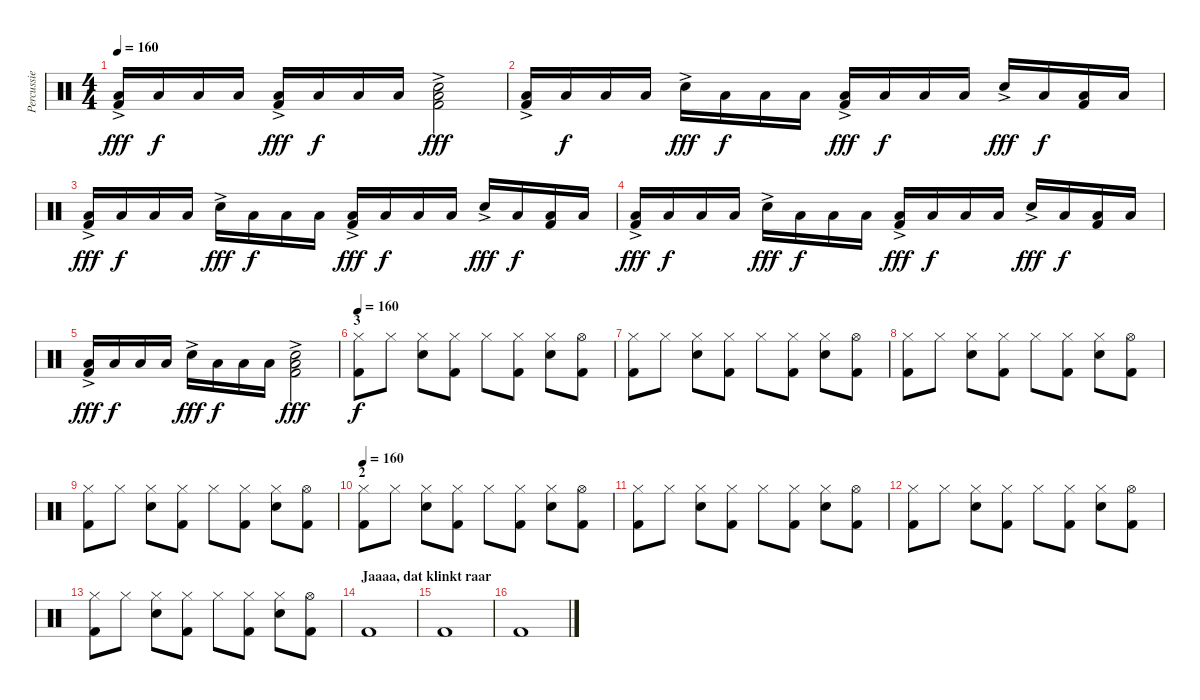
\track ("Percussie" "Percussie") {instrument percussion}
\staff {score}
\articulation defaults
\ts (4 4)
\tempo 160
\clef neutral
\ks c
("Low Floor Tom (hit)"{ac} "Kick (hit) 2").16{dy fff} "Low Floor Tom (hit)".16{dy f} "Low Floor Tom (hit)".16 "Low Floor Tom (hit)".16 ("Low Floor Tom (hit)"{ac} "Kick (hit) 2").16{dy fff} "Low Floor Tom (hit)".16{dy f} "Low Floor Tom (hit)".16 "Low Floor Tom (hit)".16 ("Snare (hit) 2"{ac} "Low Floor Tom (hit)"{ac} "Kick (hit) 2").2{dy fff} |
("Low Floor Tom (hit)"{ac} "Kick (hit) 2").16 "Low Floor Tom (hit)".16{dy f} "Low Floor Tom (hit)".16 "Low Floor Tom (hit)".16 "Snare (hit) 2"{ac}.16{dy fff} "Low Floor Tom (hit)".16{dy f} "Low Floor Tom (hit)".16 "Low Floor Tom (hit)".16 ("Low Floor Tom (hit)"{ac} "Kick (hit) 2").16{dy fff} "Low Floor Tom (hit)".16{dy f} "Low Floor Tom (hit)".16 "Low Floor Tom (hit)".16 "Snare (hit) 2"{ac}.16{dy fff} "Low Floor Tom (hit)".16{dy f} ("Low Floor Tom (hit)" "Kick (hit) 2").16 "Low Floor Tom (hit)".16 |
("Low Floor Tom (hit)"{ac} "Kick (hit) 2").16{dy fff} "Low Floor Tom (hit)".16{dy f} "Low Floor Tom (hit)".16 "Low Floor Tom (hit)".16 "Snare (hit) 2"{ac}.16{dy fff} "Low Floor Tom (hit)".16{dy f} "Low Floor Tom (hit)".16 "Low Floor Tom (hit)".16 ("Low Floor Tom (hit)"{ac} "Kick (hit) 2").16{dy fff} "Low Floor Tom (hit)".16{dy f} "Low Floor Tom (hit)".16 "Low Floor Tom (hit)".16 "Snare (hit) 2"{ac}.16{dy fff} "Low Floor Tom (hit)".16{dy f} ("Low Floor Tom (hit)" "Kick (hit) 2").16 "Low Floor Tom (hit)".16 |
("Low Floor Tom (hit)"{ac} "Kick (hit) 2").16{dy fff} "Low Floor Tom (hit)".16{dy f} "Low Floor Tom (hit)".16 "Low Floor Tom (hit)".16 "Snare (hit) 2"{ac}.16{dy fff} "Low Floor Tom (hit)".16{dy f} "Low Floor Tom (hit)".16 "Low Floor Tom (hit)".16 ("Low Floor Tom (hit)"{ac} "Kick (hit) 2").16{dy fff} "Low Floor Tom (hit)".16{dy f} "Low Floor Tom (hit)".16 "Low Floor Tom (hit)".16 "Snare (hit) 2"{ac}.16{dy fff} "Low Floor Tom (hit)".16{dy f} ("Low Floor Tom (hit)" "Kick (hit) 2").16 "Low Floor Tom (hit)".16 |
("Low Floor Tom (hit)"{ac} "Kick (hit) 2").16{dy fff} "Low Floor Tom (hit)".16{dy f} "Low Floor Tom (hit)".16 "Low Floor Tom (hit)".16 "Snare (hit) 2"{ac}.16{dy fff} "Low Floor Tom (hit)".16{dy f} "Low Floor Tom (hit)".16 "Low Floor Tom (hit)".16 ("Snare (hit) 2"{ac} "Low Floor Tom (hit)"{ac} "Kick (hit) 2").2{dy fff} |
\section ("" "3")
\tempo 160
("Hi-Hat (closed)" "Kick (hit) 2").8{dy f} "Hi-Hat (closed)".8 ("Hi-Hat (closed)" "Snare (hit) 2").8 ("Hi-Hat (closed)" "Kick (hit) 2").8 "Hi-Hat (closed)".8 ("Hi-Hat (closed)" "Kick (hit) 2").8 ("Hi-Hat (closed)" "Snare (hit) 2").8 ("Hi-Hat (open)" "Kick (hit) 2").8 |
("Hi-Hat (closed)" "Kick (hit) 2").8 "Hi-Hat (closed)".8 ("Hi-Hat (closed)" "Snare (hit) 2").8 ("Hi-Hat (closed)" "Kick (hit) 2").8 "Hi-Hat (closed)".8 ("Hi-Hat (closed)" "Kick (hit) 2").8 ("Hi-Hat (closed)" "Snare (hit) 2").8 ("Hi-Hat (open)" "Kick (hit) 2").8 |
("Hi-Hat (closed)" "Kick (hit) 2").8 "Hi-Hat (closed)".8 ("Hi-Hat (closed)" "Snare (hit) 2").8 ("Hi-Hat (closed)" "Kick (hit) 2").8 "Hi-Hat (closed)".8 ("Hi-Hat (closed)" "Kick (hit) 2").8 ("Hi-Hat (closed)" "Snare (hit) 2").8 ("Hi-Hat (open)" "Kick (hit) 2").8 |
("Hi-Hat (closed)" "Kick (hit) 2").8 "Hi-Hat (closed)".8 ("Hi-Hat (closed)" "Snare (hit) 2").8 ("Hi-Hat (closed)" "Kick (hit) 2").8 "Hi-Hat (closed)".8 ("Hi-Hat (closed)" "Kick (hit) 2").8 ("Hi-Hat (closed)" "Snare (hit) 2").8 ("Hi-Hat (open)" "Kick (hit) 2").8 |
\section ("" "2")
\tempo 160
("Hi-Hat (closed)" "Kick (hit) 2").8 "Hi-Hat (closed)".8 ("Hi-Hat (closed)" "Snare (hit) 2").8 ("Hi-Hat (closed)" "Kick (hit) 2").8 "Hi-Hat (closed)".8 ("Hi-Hat (closed)" "Kick (hit) 2").8 ("Hi-Hat (closed)" "Snare (hit) 2").8 ("Hi-Hat (open)" "Kick (hit) 2").8 |
("Hi-Hat (closed)" "Kick (hit) 2").8 "Hi-Hat (closed)".8 ("Hi-Hat (closed)" "Snare (hit) 2").8 ("Hi-Hat (closed)" "Kick (hit) 2").8 "Hi-Hat (closed)".8 ("Hi-Hat (closed)" "Kick (hit) 2").8 ("Hi-Hat (closed)" "Snare (hit) 2").8 ("Hi-Hat (open)" "Kick (hit) 2").8 |
("Hi-Hat (closed)" "Kick (hit) 2").8 "Hi-Hat (closed)".8 ("Hi-Hat (closed)" "Snare (hit) 2").8 ("Hi-Hat (closed)" "Kick (hit) 2").8 "Hi-Hat (closed)".8 ("Hi-Hat (closed)" "Kick (hit) 2").8 ("Hi-Hat (closed)" "Snare (hit) 2").8 ("Hi-Hat (open)" "Kick (hit) 2").8 |
("Hi-Hat (closed)" "Kick (hit) 2").8 "Hi-Hat (closed)".8 ("Hi-Hat (closed)" "Snare (hit) 2").8 ("Hi-Hat (closed)" "Kick (hit) 2").8 "Hi-Hat (closed)".8 ("Hi-Hat (closed)" "Kick (hit) 2").8 ("Hi-Hat (closed)" "Snare (hit) 2").8 ("Hi-Hat (open)" "Kick (hit) 2").8 |
\section ("" "Jaaaa, dat klinkt raar")
"Kick (hit) 2".1 |
"Kick (hit) 2".1 |
"Kick (hit) 2".1
